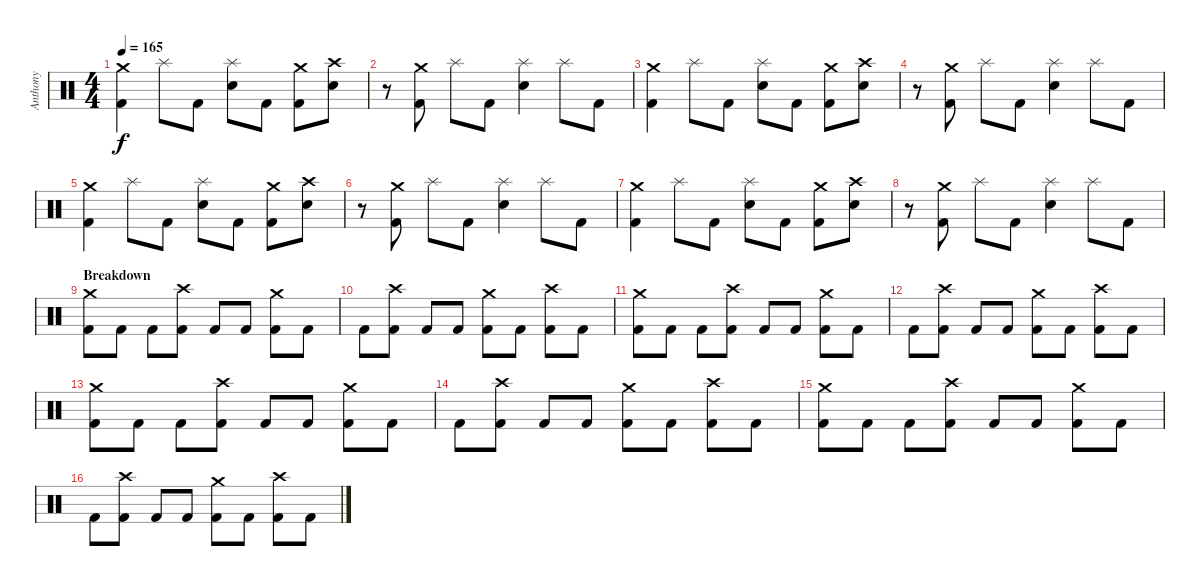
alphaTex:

\track ("Anthony" "Anthony") {instrument percussion}
\staff {score}
\articulation defaults
\ts (4 4)
\tempo 165
\clef neutral
\ks c
("Crash medium (hit)" "Kick (hit) 2").4{dy f} "Splash (hit)".8 "Kick (hit) 2".8 ("Splash (hit)" "Electric Snare (hit)").8 "Kick (hit) 2".8 ("Crash medium (hit)" "Kick (hit) 2").8 ("Crash high (hit)" "Electric Snare (hit)").8 |
r.8 ("Crash medium (hit)" "Kick (hit) 2").8 "Splash (hit)".8 "Kick (hit) 2".8 ("Splash (hit)" "Electric Snare (hit)").4 "Splash (hit)".8 "Kick (hit) 2".8 |
("Crash medium (hit)" "Kick (hit) 2").4 "Splash (hit)".8 "Kick (hit) 2".8 ("Splash (hit)" "Electric Snare (hit)").8 "Kick (hit) 2".8 ("Crash medium (hit)" "Kick (hit) 2").8 ("Crash high (hit)" "Electric Snare (hit)").8 |
r.8 ("Crash medium (hit)" "Kick (hit) 2").8 "Splash (hit)".8 "Kick (hit) 2".8 ("Splash (hit)" "Electric Snare (hit)").4 "Splash (hit)".8 "Kick (hit) 2".8 |
("Crash medium (hit)" "Kick (hit) 2").4 "Splash (hit)".8 "Kick (hit) 2".8 ("Splash (hit)" "Electric Snare (hit)").8 "Kick (hit) 2".8 ("Crash medium (hit)" "Kick (hit) 2").8 ("Crash high (hit)" "Electric Snare (hit)").8 |
r.8 ("Crash medium (hit)" "Kick (hit) 2").8 "Splash (hit)".8 "Kick (hit) 2".8 ("Splash (hit)" "Electric Snare (hit)").4 "Splash (hit)".8 "Kick (hit) 2".8 |
("Crash medium (hit)" "Kick (hit) 2").4 "Splash (hit)".8 "Kick (hit) 2".8 ("Splash (hit)" "Electric Snare (hit)").8 "Kick (hit) 2".8 ("Crash medium (hit)" "Kick (hit) 2").8 ("Crash high (hit)" "Electric Snare (hit)").8 |
r.8 ("Crash medium (hit)" "Kick (hit) 2").8 "Splash (hit)".8 "Kick (hit) 2".8 ("Splash (hit)" "Electric Snare (hit)").4 "Splash (hit)".8 "Kick (hit) 2".8 |
\section ("" "Breakdown")
("Crash medium (hit)" "Kick (hit) 2").8 "Kick (hit) 2".8 "Kick (hit) 2".8 ("Crash high (hit)" "Kick (hit) 2").8 "Kick (hit) 2".8 "Kick (hit) 2".8 ("Crash medium (hit)" "Kick (hit) 2").8 "Kick (hit) 2".8 |
"Kick (hit) 2".8 ("Crash high (hit)" "Kick (hit) 2").8 "Kick (hit) 2".8 "Kick (hit) 2".8 ("Crash medium (hit)" "Kick (hit) 2").8 "Kick (hit) 2".8 ("Crash high (hit)" "Kick (hit) 2").8 "Kick (hit) 2".8 |
("Crash medium (hit)" "Kick (hit) 2").8 "Kick (hit) 2".8 "Kick (hit) 2".8 ("Crash high (hit)" "Kick (hit) 2").8 "Kick (hit) 2".8 "Kick (hit) 2".8 ("Crash medium (hit)" "Kick (hit) 2").8 "Kick (hit) 2".8 |
"Kick (hit) 2".8 ("Crash high (hit)" "Kick (hit) 2").8 "Kick (hit) 2".8 "Kick (hit) 2".8 ("Crash medium (hit)" "Kick (hit) 2").8 "Kick (hit) 2".8 ("Crash high (hit)" "Kick (hit) 2").8 "Kick (hit) 2".8 |
("Crash medium (hit)" "Kick (hit) 2").8 "Kick (hit) 2".8 "Kick (hit) 2".8 ("Crash high (hit)" "Kick (hit) 2").8 "Kick (hit) 2".8 "Kick (hit) 2".8 ("Crash medium (hit)" "Kick (hit) 2").8 "Kick (hit) 2".8 |
"Kick (hit) 2".8 ("Crash high (hit)" "Kick (hit) 2").8 "Kick (hit) 2".8 "Kick (hit) 2".8 ("Crash medium (hit)" "Kick (hit) 2").8 "Kick (hit) 2".8 ("Crash high (hit)" "Kick (hit) 2").8 "Kick (hit) 2".8 |
("Crash medium (hit)" "Kick (hit) 2").8 "Kick (hit) 2".8 "Kick (hit) 2".8 ("Crash high (hit)" "Kick (hit) 2").8 "Kick (hit) 2".8 "Kick (hit) 2".8 ("Crash medium (hit)" "Kick (hit) 2").8 "Kick (hit) 2".8 |
"Kick (hit) 2".8 ("Crash high (hit)" "Kick (hit) 2").8 "Kick (hit) 2".8 "Kick (hit) 2".8 ("Crash medium (hit)" "Kick (hit) 2").8 "Kick (hit) 2".8 ("Crash high (hit)" "Kick (hit) 2").8 "Kick (hit) 2".8
